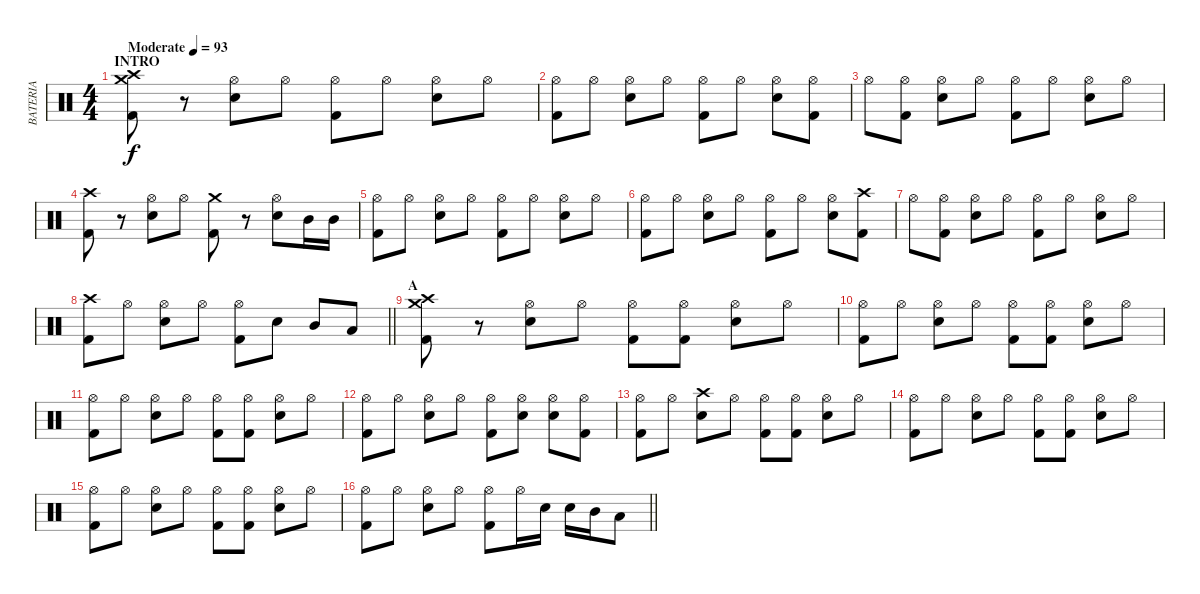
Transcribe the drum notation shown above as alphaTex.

\track ("BATERIA" "BATERIA") {instrument percussion}
\staff {score}
\articulation defaults
\ts (4 4)
\section ("" "INTRO")
\tempo (93 "Moderate")
\clef neutral
\ks c
("Kick (hit) 2" "Crash medium (hit)" "Crash high (hit)").8{dy f} r.8 ("Electric Snare (hit)" "Hi-Hat (open)").8 "Hi-Hat (open)".8 ("Kick (hit) 2" "Hi-Hat (open)").8 "Hi-Hat (open)".8 ("Electric Snare (hit)" "Hi-Hat (open)").8 "Hi-Hat (open)".8 |
("Kick (hit) 2" "Hi-Hat (open)").8 "Hi-Hat (open)".8 ("Electric Snare (hit)" "Hi-Hat (open)").8 "Hi-Hat (open)".8 ("Kick (hit) 2" "Hi-Hat (open)").8 "Hi-Hat (open)".8 ("Electric Snare (hit)" "Hi-Hat (open)").8 ("Kick (hit) 2" "Hi-Hat (open)").8 |
"Hi-Hat (open)".8 ("Kick (hit) 2" "Hi-Hat (open)").8 ("Electric Snare (hit)" "Hi-Hat (open)").8 "Hi-Hat (open)".8 ("Kick (hit) 2" "Hi-Hat (open)").8 "Hi-Hat (open)".8 ("Electric Snare (hit)" "Hi-Hat (open)").8 "Hi-Hat (open)".8 |
("Kick (hit) 2" "Crash high (hit)").8 r.8 ("Electric Snare (hit)" "Hi-Hat (open)").8 "Hi-Hat (open)".8 ("Kick (hit) 2" "Crash medium (hit)").8 r.8 ("Electric Snare (hit)" "Hi-Hat (open)").8 "Mid Tom (hit)".16 "Mid Tom (hit)".16 |
("Kick (hit) 2" "Hi-Hat (open)").8 "Hi-Hat (open)".8 ("Electric Snare (hit)" "Hi-Hat (open)").8 "Hi-Hat (open)".8 ("Kick (hit) 2" "Hi-Hat (open)").8 "Hi-Hat (open)".8 ("Electric Snare (hit)" "Hi-Hat (open)").8 "Hi-Hat (open)".8 |
("Kick (hit) 2" "Hi-Hat (open)").8 "Hi-Hat (open)".8 ("Electric Snare (hit)" "Hi-Hat (open)").8 "Hi-Hat (open)".8 ("Kick (hit) 2" "Hi-Hat (open)").8 "Hi-Hat (open)".8 ("Electric Snare (hit)" "Hi-Hat (open)").8 ("Kick (hit) 2" "Crash high (hit)").8 |
"Hi-Hat (open)".8 ("Kick (hit) 2" "Hi-Hat (open)").8 ("Electric Snare (hit)" "Hi-Hat (open)").8 "Hi-Hat (open)".8 ("Kick (hit) 2" "Hi-Hat (open)").8 "Hi-Hat (open)".8 ("Electric Snare (hit)" "Hi-Hat (open)").8 "Hi-Hat (open)".8 |
\barLineRight lightlight
("Kick (hit) 2" "Crash high (hit)").8 "Hi-Hat (open)".8 ("Electric Snare (hit)" "Hi-Hat (open)").8 "Hi-Hat (open)".8 ("Kick (hit) 2" "Hi-Hat (open)").8 "Electric Snare (hit)".8 "Mid Tom (hit)".8 "Low Tom (hit)".8 |
\section ("" "A")
("Kick (hit) 2" "Crash medium (hit)" "Crash high (hit)").8 r.8 ("Electric Snare (hit)" "Hi-Hat (open)").8 "Hi-Hat (open)".8 ("Kick (hit) 2" "Hi-Hat (open)").8 ("Kick (hit) 2" "Hi-Hat (open)").8 ("Electric Snare (hit)" "Hi-Hat (open)").8 "Hi-Hat (open)".8 |
("Kick (hit) 2" "Hi-Hat (open)").8 "Hi-Hat (open)".8 ("Electric Snare (hit)" "Hi-Hat (open)").8 "Hi-Hat (open)".8 ("Kick (hit) 2" "Hi-Hat (open)").8 ("Kick (hit) 2" "Hi-Hat (open)").8 ("Electric Snare (hit)" "Hi-Hat (open)").8 "Hi-Hat (open)".8 |
("Kick (hit) 2" "Hi-Hat (open)").8 "Hi-Hat (open)".8 ("Electric Snare (hit)" "Hi-Hat (open)").8 "Hi-Hat (open)".8 ("Kick (hit) 2" "Hi-Hat (open)").8 ("Kick (hit) 2" "Hi-Hat (open)").8 ("Electric Snare (hit)" "Hi-Hat (open)").8 "Hi-Hat (open)".8 |
("Kick (hit) 2" "Hi-Hat (open)").8 "Hi-Hat (open)".8 ("Electric Snare (hit)" "Hi-Hat (open)").8 "Hi-Hat (open)".8 ("Kick (hit) 2" "Hi-Hat (open)").8 ("Electric Snare (hit)" "Hi-Hat (open)").8 ("Electric Snare (hit)" "Hi-Hat (open)").8 ("Kick (hit) 2" "Hi-Hat (open)").8 |
("Kick (hit) 2" "Hi-Hat (open)").8 "Hi-Hat (open)".8 ("Electric Snare (hit)" "Crash high (hit)").8 "Hi-Hat (open)".8 ("Kick (hit) 2" "Hi-Hat (open)").8 ("Kick (hit) 2" "Hi-Hat (open)").8 ("Electric Snare (hit)" "Hi-Hat (open)").8 "Hi-Hat (open)".8 |
("Kick (hit) 2" "Hi-Hat (open)").8 "Hi-Hat (open)".8 ("Electric Snare (hit)" "Hi-Hat (open)").8 "Hi-Hat (open)".8 ("Kick (hit) 2" "Hi-Hat (open)").8 ("Kick (hit) 2" "Hi-Hat (open)").8 ("Electric Snare (hit)" "Hi-Hat (open)").8 "Hi-Hat (open)".8 |
("Kick (hit) 2" "Hi-Hat (open)").8 "Hi-Hat (open)".8 ("Electric Snare (hit)" "Hi-Hat (open)").8 "Hi-Hat (open)".8 ("Kick (hit) 2" "Hi-Hat (open)").8 ("Kick (hit) 2" "Hi-Hat (open)").8 ("Electric Snare (hit)" "Hi-Hat (open)").8 "Hi-Hat (open)".8 |
\barLineRight lightlight
("Kick (hit) 2" "Hi-Hat (open)").8 "Hi-Hat (open)".8 ("Electric Snare (hit)" "Hi-Hat (open)").8 "Hi-Hat (open)".8 ("Kick (hit) 2" "Hi-Hat (open)").8 "Hi-Hat (open)".16 "Electric Snare (hit)".16 "Electric Snare (hit)".16 "Mid Tom (hit)".16 "Low Tom (hit)".8
